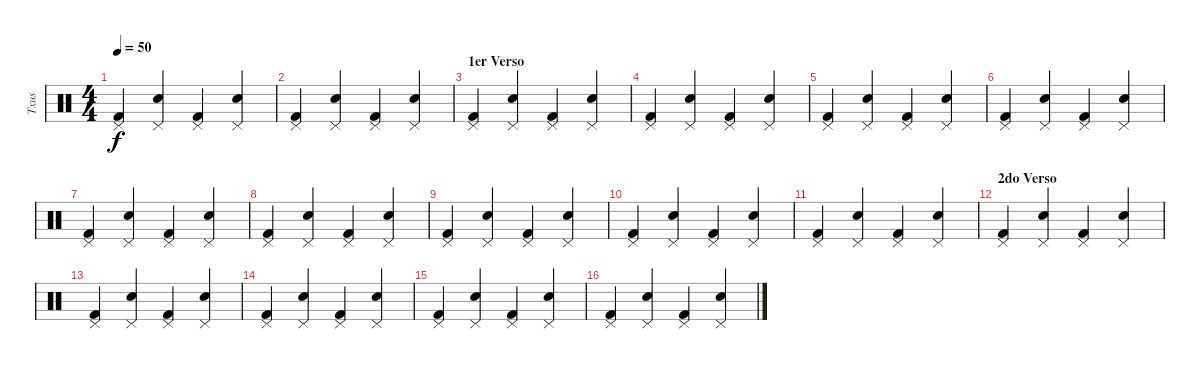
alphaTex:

\track ("Txus" "Txus") {instrument percussion}
\staff {score}
\articulation defaults
\ts (4 4)
\tempo 50
\clef neutral
\ks c
("Pedal Hi-Hat (hit)" "Kick (hit) 2").4{dy f} ("Pedal Hi-Hat (hit)" "Snare (hit) 2").4 ("Pedal Hi-Hat (hit)" "Kick (hit) 2").4 ("Pedal Hi-Hat (hit)" "Snare (hit) 2").4 |
("Pedal Hi-Hat (hit)" "Kick (hit) 2").4 ("Pedal Hi-Hat (hit)" "Snare (hit) 2").4 ("Pedal Hi-Hat (hit)" "Kick (hit) 2").4 ("Pedal Hi-Hat (hit)" "Snare (hit) 2").4 |
\section ("" "1er Verso")
("Pedal Hi-Hat (hit)" "Kick (hit) 2").4 ("Pedal Hi-Hat (hit)" "Snare (hit) 2").4 ("Pedal Hi-Hat (hit)" "Kick (hit) 2").4 ("Pedal Hi-Hat (hit)" "Snare (hit) 2").4 |
("Pedal Hi-Hat (hit)" "Kick (hit) 2").4 ("Pedal Hi-Hat (hit)" "Snare (hit) 2").4 ("Pedal Hi-Hat (hit)" "Kick (hit) 2").4 ("Pedal Hi-Hat (hit)" "Snare (hit) 2").4 |
("Pedal Hi-Hat (hit)" "Kick (hit) 2").4 ("Pedal Hi-Hat (hit)" "Snare (hit) 2").4 ("Pedal Hi-Hat (hit)" "Kick (hit) 2").4 ("Pedal Hi-Hat (hit)" "Snare (hit) 2").4 |
("Pedal Hi-Hat (hit)" "Kick (hit) 2").4 ("Pedal Hi-Hat (hit)" "Snare (hit) 2").4 ("Pedal Hi-Hat (hit)" "Kick (hit) 2").4 ("Pedal Hi-Hat (hit)" "Snare (hit) 2").4 |
("Pedal Hi-Hat (hit)" "Kick (hit) 2").4 ("Pedal Hi-Hat (hit)" "Snare (hit) 2").4 ("Pedal Hi-Hat (hit)" "Kick (hit) 2").4 ("Pedal Hi-Hat (hit)" "Snare (hit) 2").4 |
("Pedal Hi-Hat (hit)" "Kick (hit) 2").4 ("Pedal Hi-Hat (hit)" "Snare (hit) 2").4 ("Pedal Hi-Hat (hit)" "Kick (hit) 2").4 ("Pedal Hi-Hat (hit)" "Snare (hit) 2").4 |
("Pedal Hi-Hat (hit)" "Kick (hit) 2").4 ("Pedal Hi-Hat (hit)" "Snare (hit) 2").4 ("Pedal Hi-Hat (hit)" "Kick (hit) 2").4 ("Pedal Hi-Hat (hit)" "Snare (hit) 2").4 |
("Pedal Hi-Hat (hit)" "Kick (hit) 2").4 ("Pedal Hi-Hat (hit)" "Snare (hit) 2").4 ("Pedal Hi-Hat (hit)" "Kick (hit) 2").4 ("Pedal Hi-Hat (hit)" "Snare (hit) 2").4 |
("Pedal Hi-Hat (hit)" "Kick (hit) 2").4 ("Pedal Hi-Hat (hit)" "Snare (hit) 2").4 ("Pedal Hi-Hat (hit)" "Kick (hit) 2").4 ("Pedal Hi-Hat (hit)" "Snare (hit) 2").4 |
\section ("" "2do Verso")
("Pedal Hi-Hat (hit)" "Kick (hit) 2").4 ("Pedal Hi-Hat (hit)" "Snare (hit) 2").4 ("Pedal Hi-Hat (hit)" "Kick (hit) 2").4 ("Pedal Hi-Hat (hit)" "Snare (hit) 2").4 |
("Pedal Hi-Hat (hit)" "Kick (hit) 2").4 ("Pedal Hi-Hat (hit)" "Snare (hit) 2").4 ("Pedal Hi-Hat (hit)" "Kick (hit) 2").4 ("Pedal Hi-Hat (hit)" "Snare (hit) 2").4 |
("Pedal Hi-Hat (hit)" "Kick (hit) 2").4 ("Pedal Hi-Hat (hit)" "Snare (hit) 2").4 ("Pedal Hi-Hat (hit)" "Kick (hit) 2").4 ("Pedal Hi-Hat (hit)" "Snare (hit) 2").4 |
("Pedal Hi-Hat (hit)" "Kick (hit) 2").4 ("Pedal Hi-Hat (hit)" "Snare (hit) 2").4 ("Pedal Hi-Hat (hit)" "Kick (hit) 2").4 ("Pedal Hi-Hat (hit)" "Snare (hit) 2").4 |
("Pedal Hi-Hat (hit)" "Kick (hit) 2").4 ("Pedal Hi-Hat (hit)" "Snare (hit) 2").4 ("Pedal Hi-Hat (hit)" "Kick (hit) 2").4 ("Pedal Hi-Hat (hit)" "Snare (hit) 2").4
